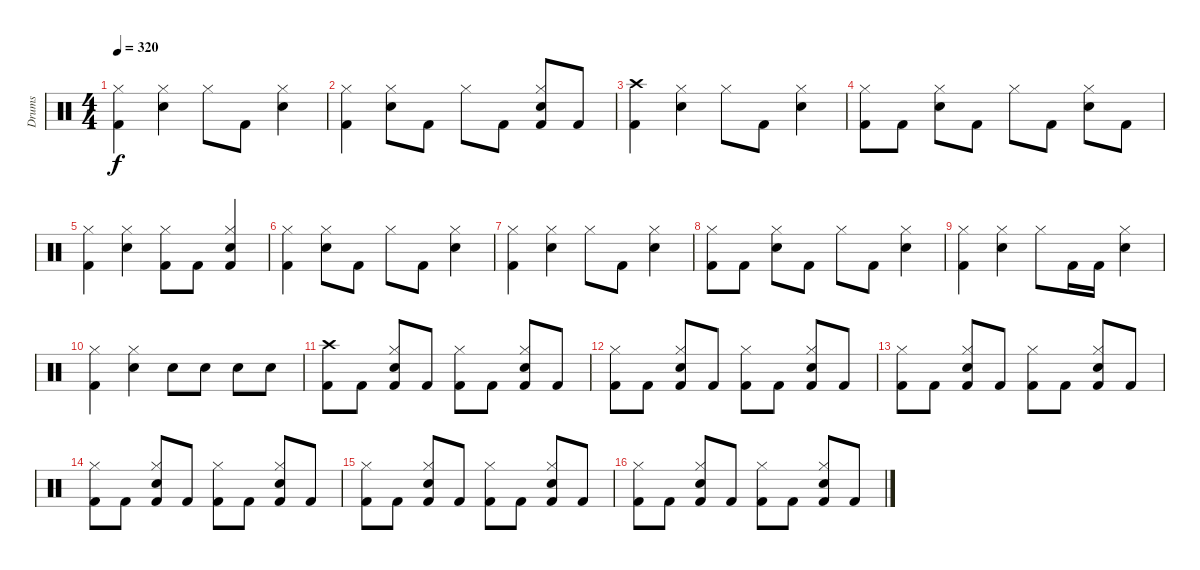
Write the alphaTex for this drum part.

\track ("Drums" "Drums") {instrument percussion}
\staff {score}
\articulation defaults
\ts (4 4)
\tempo 320
\clef neutral
\ks c
("Kick (hit) 2" "Hi-Hat (closed)").4{dy f} ("Snare (hit) 2" "Hi-Hat (closed)").4 "Hi-Hat (closed)".8 "Kick (hit) 2".8 ("Snare (hit) 2" "Hi-Hat (closed)").4 |
("Kick (hit) 2" "Hi-Hat (closed)").4 ("Snare (hit) 2" "Hi-Hat (closed)").8 "Kick (hit) 2".8 "Hi-Hat (closed)".8 "Kick (hit) 2".8 ("Hi-Hat (closed)" "Snare (hit) 2" "Kick (hit) 2").8 "Kick (hit) 2".8 |
("Kick (hit) 2" "Crash high (hit)").4 ("Snare (hit) 2" "Hi-Hat (closed)").4 "Hi-Hat (closed)".8 "Kick (hit) 2".8 ("Hi-Hat (closed)" "Snare (hit) 2").4 |
("Kick (hit) 2" "Hi-Hat (closed)").8 "Kick (hit) 2".8 ("Snare (hit) 2" "Hi-Hat (closed)").8 "Kick (hit) 2".8 "Hi-Hat (closed)".8 "Kick (hit) 2".8 ("Snare (hit) 2" "Hi-Hat (closed)").8 "Kick (hit) 2".8 |
("Kick (hit) 2" "Hi-Hat (closed)").4 ("Snare (hit) 2" "Hi-Hat (closed)").4 ("Hi-Hat (closed)" "Kick (hit) 2").8 "Kick (hit) 2".8 ("Snare (hit) 2" "Kick (hit) 2" "Hi-Hat (closed)").4 |
("Kick (hit) 2" "Hi-Hat (closed)").4 ("Hi-Hat (closed)" "Snare (hit) 2").8 "Kick (hit) 2".8 "Hi-Hat (closed)".8 "Kick (hit) 2".8 ("Hi-Hat (closed)" "Snare (hit) 2").4 |
("Kick (hit) 2" "Hi-Hat (closed)").4 ("Snare (hit) 2" "Hi-Hat (closed)").4 "Hi-Hat (closed)".8 "Kick (hit) 2".8 ("Snare (hit) 2" "Hi-Hat (closed)").4 |
("Kick (hit) 2" "Hi-Hat (closed)").8 "Kick (hit) 2".8 ("Snare (hit) 2" "Hi-Hat (closed)").8 "Kick (hit) 2".8 "Hi-Hat (closed)".8 "Kick (hit) 2".8 ("Hi-Hat (closed)" "Snare (hit) 2").4 |
("Kick (hit) 2" "Hi-Hat (closed)").4 ("Snare (hit) 2" "Hi-Hat (closed)").4 "Hi-Hat (closed)".8 "Kick (hit) 2".16 "Kick (hit) 2".16 ("Snare (hit) 2" "Hi-Hat (closed)").4 |
("Kick (hit) 2" "Hi-Hat (closed)").4 ("Snare (hit) 2" "Hi-Hat (closed)").4 "Snare (hit) 2".8 "Snare (hit) 2".8 "Snare (hit) 2".8 "Snare (hit) 2".8 |
("Kick (hit) 2" "Crash high (hit)").8 "Kick (hit) 2".8 ("Snare (hit) 2" "Hi-Hat (closed)" "Kick (hit) 2").8 "Kick (hit) 2".8 ("Hi-Hat (closed)" "Kick (hit) 2").8 "Kick (hit) 2".8 ("Hi-Hat (closed)" "Snare (hit) 2" "Kick (hit) 2").8 "Kick (hit) 2".8 |
("Kick (hit) 2" "Hi-Hat (closed)").8 "Kick (hit) 2".8 ("Snare (hit) 2" "Hi-Hat (closed)" "Kick (hit) 2").8 "Kick (hit) 2".8 ("Hi-Hat (closed)" "Kick (hit) 2").8 "Kick (hit) 2".8 ("Kick (hit) 2" "Snare (hit) 2" "Hi-Hat (closed)").8 "Kick (hit) 2".8 |
("Kick (hit) 2" "Hi-Hat (closed)").8 "Kick (hit) 2".8 ("Hi-Hat (closed)" "Kick (hit) 2" "Snare (hit) 2").8 "Kick (hit) 2".8 ("Hi-Hat (closed)" "Kick (hit) 2").8 "Kick (hit) 2".8 ("Kick (hit) 2" "Hi-Hat (closed)" "Snare (hit) 2").8 "Kick (hit) 2".8 |
("Kick (hit) 2" "Hi-Hat (closed)").8 "Kick (hit) 2".8 ("Snare (hit) 2" "Kick (hit) 2" "Hi-Hat (closed)").8 "Kick (hit) 2".8 ("Hi-Hat (closed)" "Kick (hit) 2").8 "Kick (hit) 2".8 ("Kick (hit) 2" "Snare (hit) 2" "Hi-Hat (closed)").8 "Kick (hit) 2".8 |
("Kick (hit) 2" "Hi-Hat (closed)").8 "Kick (hit) 2".8 ("Hi-Hat (closed)" "Kick (hit) 2" "Snare (hit) 2").8 "Kick (hit) 2".8 ("Hi-Hat (closed)" "Kick (hit) 2").8 "Kick (hit) 2".8 ("Hi-Hat (closed)" "Kick (hit) 2" "Snare (hit) 2").8 "Kick (hit) 2".8 |
("Kick (hit) 2" "Hi-Hat (closed)").8 "Kick (hit) 2".8 ("Hi-Hat (closed)" "Kick (hit) 2" "Snare (hit) 2").8 "Kick (hit) 2".8 ("Hi-Hat (closed)" "Kick (hit) 2").8 "Kick (hit) 2".8 ("Snare (hit) 2" "Hi-Hat (closed)" "Kick (hit) 2").8 "Kick (hit) 2".8
